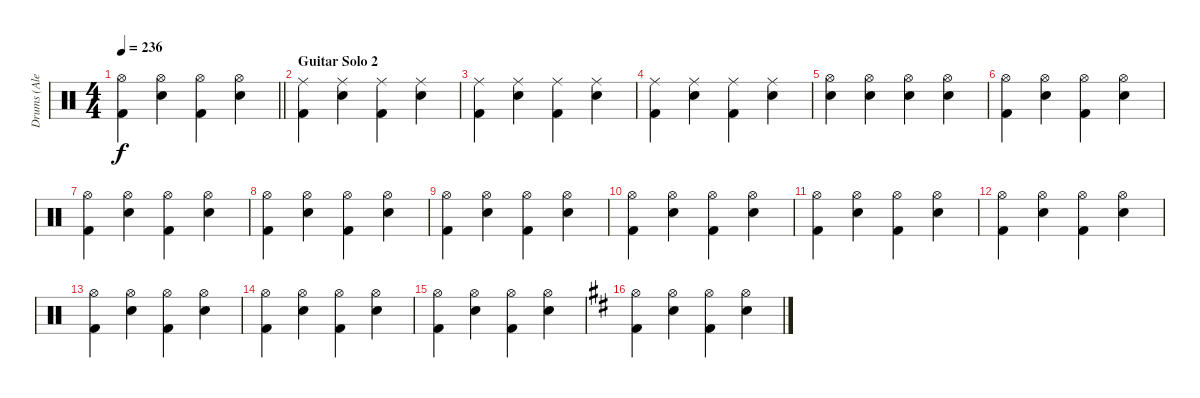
\track ("Drums (Alex Van Halen)" "Drums (Ale") {instrument percussion}
\staff {score}
\articulation defaults
\ts (4 4)
\tempo 236
\clef neutral
\barLineRight lightlight
\ks c
("Hi-Hat (open)" "Kick (hit) 2").4{dy f} ("Hi-Hat (open)" "Snare (hit) 2").4 ("Hi-Hat (open)" "Kick (hit) 2").4 ("Hi-Hat (open)" "Snare (hit) 2").4 |
\section ("" "Guitar Solo 2")
("Ride (middle)" "Kick (hit) 2").4 ("Ride (middle)" "Snare (hit) 2").4 ("Ride (middle)" "Kick (hit) 2").4 ("Ride (middle)" "Snare (hit) 2").4 |
("Ride (middle)" "Kick (hit) 2").4 ("Ride (middle)" "Snare (hit) 2").4 ("Ride (middle)" "Kick (hit) 2").4 ("Ride (middle)" "Snare (hit) 2").4 |
("Ride (middle)" "Kick (hit) 2").4 ("Ride (middle)" "Snare (hit) 2").4 ("Ride (middle)" "Kick (hit) 2").4 ("Ride (middle)" "Snare (hit) 2").4 |
("Hi-Hat (open)" "Snare (hit) 2").4 ("Hi-Hat (open)" "Snare (hit) 2").4 ("Hi-Hat (open)" "Snare (hit) 2").4 ("Hi-Hat (open)" "Snare (hit) 2").4 |
("Hi-Hat (open)" "Kick (hit) 2").4 ("Hi-Hat (open)" "Snare (hit) 2").4 ("Hi-Hat (open)" "Kick (hit) 2").4 ("Hi-Hat (open)" "Snare (hit) 2").4 |
("Hi-Hat (open)" "Kick (hit) 2").4 ("Hi-Hat (open)" "Snare (hit) 2").4 ("Hi-Hat (open)" "Kick (hit) 2").4 ("Hi-Hat (open)" "Snare (hit) 2").4 |
("Hi-Hat (open)" "Kick (hit) 2").4 ("Hi-Hat (open)" "Snare (hit) 2").4 ("Hi-Hat (open)" "Kick (hit) 2").4 ("Hi-Hat (open)" "Snare (hit) 2").4 |
("Hi-Hat (open)" "Kick (hit) 2").4 ("Hi-Hat (open)" "Snare (hit) 2").4 ("Hi-Hat (open)" "Kick (hit) 2").4 ("Hi-Hat (open)" "Snare (hit) 2").4 |
("Hi-Hat (open)" "Kick (hit) 2").4 ("Hi-Hat (open)" "Snare (hit) 2").4 ("Hi-Hat (open)" "Kick (hit) 2").4 ("Hi-Hat (open)" "Snare (hit) 2").4 |
("Hi-Hat (open)" "Kick (hit) 2").4 ("Hi-Hat (open)" "Snare (hit) 2").4 ("Hi-Hat (open)" "Kick (hit) 2").4 ("Hi-Hat (open)" "Snare (hit) 2").4 |
("Hi-Hat (open)" "Kick (hit) 2").4 ("Hi-Hat (open)" "Snare (hit) 2").4 ("Hi-Hat (open)" "Kick (hit) 2").4 ("Hi-Hat (open)" "Snare (hit) 2").4 |
("Hi-Hat (open)" "Kick (hit) 2").4 ("Hi-Hat (open)" "Snare (hit) 2").4 ("Hi-Hat (open)" "Kick (hit) 2").4 ("Hi-Hat (open)" "Snare (hit) 2").4 |
("Hi-Hat (open)" "Kick (hit) 2").4 ("Hi-Hat (open)" "Snare (hit) 2").4 ("Hi-Hat (open)" "Kick (hit) 2").4 ("Hi-Hat (open)" "Snare (hit) 2").4 |
("Hi-Hat (open)" "Kick (hit) 2").4 ("Hi-Hat (open)" "Snare (hit) 2").4 ("Hi-Hat (open)" "Kick (hit) 2").4 ("Hi-Hat (open)" "Snare (hit) 2").4 |
\ks d
("Hi-Hat (open)" "Kick (hit) 2").4 ("Hi-Hat (open)" "Snare (hit) 2").4 ("Hi-Hat (open)" "Kick (hit) 2").4 ("Hi-Hat (open)" "Snare (hit) 2").4
